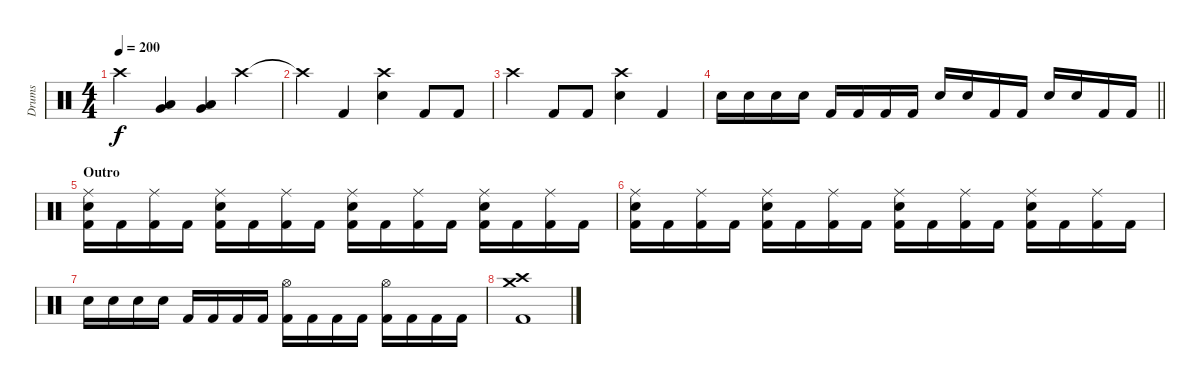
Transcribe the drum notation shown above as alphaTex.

\track ("Drums" "Drums") {instrument percussion}
\staff {score}
\articulation defaults
\ts (4 4)
\tempo 200
\clef neutral
\ks c "Crash high (hit)".4{dy f}
("Very Low Tom (hit)" "Low Floor Tom (hit)").4 ("Very Low Tom (hit)" "Low Floor Tom (hit)").4 "Crash high (hit)".4 |
"Crash high (hit)"{t}.4 "Kick (hit) 2".4 ("Crash high (hit)" "Electric Snare (hit)").4 "Kick (hit) 2".8 "Kick (hit) 2".8 |
"Crash high (hit)".4 "Kick (hit) 2".8 "Kick (hit) 2".8 ("Crash high (hit)" "Electric Snare (hit)").4 "Kick (hit) 2".4 |
\barLineRight lightlight "Electric Snare (hit)".16 "Electric Snare (hit)".16 "Electric Snare (hit)".16 "Electric Snare (hit)".16 "Kick (hit) 2".16 "Kick (hit) 2".16 "Kick (hit) 2".16 "Kick (hit) 2".16 "Electric Snare (hit)".16 "Electric Snare (hit)".16 "Kick (hit) 2".16 "Kick (hit) 2".16 "Electric Snare (hit)".16 "Electric Snare (hit)".16 "Kick (hit) 2".16 "Kick (hit) 2".16
|
\section ("" "Outro")
("Ride (middle)" "Electric Snare (hit)" "Kick (hit) 2").16 "Kick (hit) 2".16 ("Ride (middle)" "Kick (hit) 2").16 "Kick (hit) 2".16 ("Ride (middle)" "Electric Snare (hit)" "Kick (hit) 2").16 "Kick (hit) 2".16 ("Ride (middle)" "Kick (hit) 2").16 "Kick (hit) 2".16 ("Ride (middle)" "Electric Snare (hit)" "Kick (hit) 2").16 "Kick (hit) 2".16 ("Ride (middle)" "Kick (hit) 2").16 "Kick (hit) 2".16 ("Ride (middle)" "Electric Snare (hit)" "Kick (hit) 2").16 "Kick (hit) 2".16 ("Ride (middle)" "Kick (hit) 2").16 "Kick (hit) 2".16 |
("Ride (middle)" "Electric Snare (hit)" "Kick (hit) 2").16 "Kick (hit) 2".16 ("Ride (middle)" "Kick (hit) 2").16 "Kick (hit) 2".16 ("Ride (middle)" "Electric Snare (hit)" "Kick (hit) 2").16 "Kick (hit) 2".16 ("Ride (middle)" "Kick (hit) 2").16 "Kick (hit) 2".16 ("Ride (middle)" "Electric Snare (hit)" "Kick (hit) 2").16 "Kick (hit) 2".16 ("Ride (middle)" "Kick (hit) 2").16 "Kick (hit) 2".16 ("Ride (middle)" "Electric Snare (hit)" "Kick (hit) 2").16 "Kick (hit) 2".16 ("Ride (middle)" "Kick (hit) 2").16 "Kick (hit) 2".16 |
"Electric Snare (hit)".16 "Electric Snare (hit)".16 "Electric Snare (hit)".16 "Electric Snare (hit)".16 "Kick (hit) 2".16 "Kick (hit) 2".16 "Kick (hit) 2".16 "Kick (hit) 2".16 ("Hi-Hat (open)" "Kick (hit) 2").16 "Kick (hit) 2".16 "Kick (hit) 2".16 "Kick (hit) 2".16 ("Hi-Hat (open)" "Kick (hit) 2").16 "Kick (hit) 2".16 "Kick (hit) 2".16 "Kick (hit) 2".16 |
("Crash high (hit)" "Crash medium (hit)" "Kick (hit) 2").1
